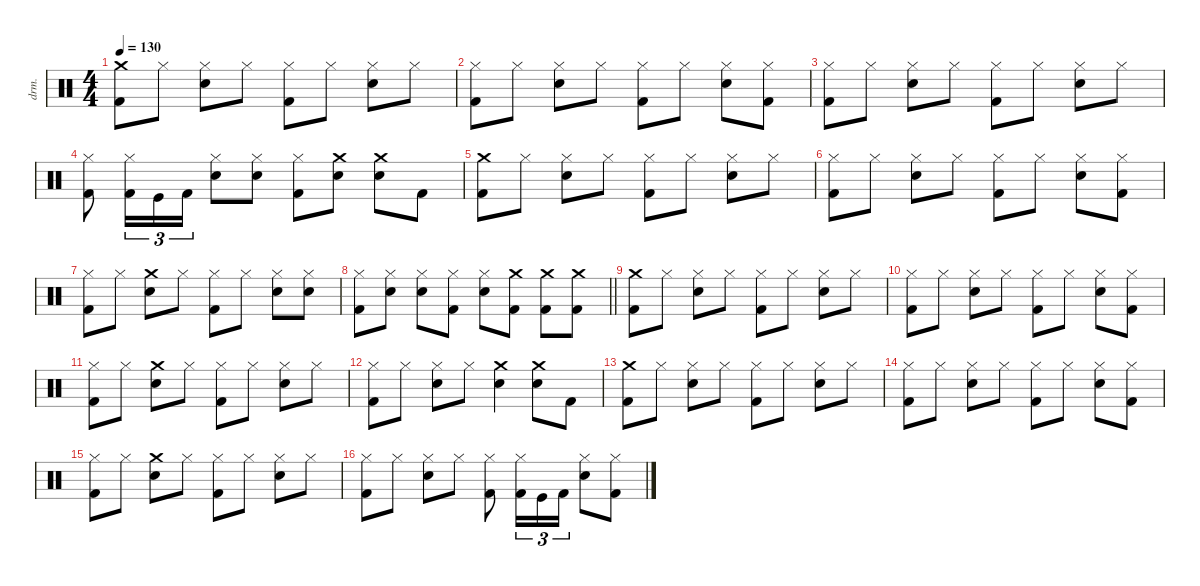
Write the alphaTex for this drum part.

\defaultSystemsLayout 4
\hideDynamics
\bracketExtendMode nobrackets
\otherSystemsTrackNameOrientation horizontal
\track ("Lars Ulrich (Drums)" "drm.") {instrument percussion}
\staff {score}
\articulation defaults
\ts (4 4)
\tempo 130
\clef neutral
\ks c
("Crash medium (hit)" "Kick (hit) 2").8{dy f beam Down} "Hi-Hat (closed)".8{beam Down} ("Snare (hit) 2" "Hi-Hat (closed)").8{beam Down} "Hi-Hat (closed)".8{beam Down} ("Hi-Hat (closed)" "Kick (hit) 2").8{beam Down} "Hi-Hat (closed)".8{beam Down} ("Snare (hit) 2" "Hi-Hat (closed)").8{beam Down} "Hi-Hat (closed)".8{beam Down} |
("Hi-Hat (closed)" "Kick (hit) 2").8{beam Down} "Hi-Hat (closed)".8{beam Down} ("Snare (hit) 2" "Hi-Hat (closed)").8{beam Down} "Hi-Hat (closed)".8{beam Down} ("Hi-Hat (closed)" "Kick (hit) 2").8{beam Down} "Hi-Hat (closed)".8{beam Down} ("Snare (hit) 2" "Hi-Hat (closed)").8{beam Down} ("Hi-Hat (closed)" "Kick (hit) 2").8{beam Down} |
("Hi-Hat (closed)" "Kick (hit) 2").8{beam Down} "Hi-Hat (closed)".8{beam Down} ("Snare (hit) 2" "Hi-Hat (closed)").8{beam Down} "Hi-Hat (closed)".8{beam Down} ("Hi-Hat (closed)" "Kick (hit) 2").8{beam Down} "Hi-Hat (closed)".8{beam Down} ("Snare (hit) 2" "Hi-Hat (closed)").8{beam Down} "Hi-Hat (closed)".8{beam Down} |
("Kick (hit) 2" "Hi-Hat (closed)").8{beam Down} ("Kick (hit) 2" "Hi-Hat (closed)").16{tu (3 2) beam Down} "Kick (hit)".16{tu (3 2) beam Down} "Kick (hit) 2".16{tu (3 2) beam Down} ("Snare (hit) 2" "Hi-Hat (closed)").8{beam Down} ("Snare (hit) 2" "Hi-Hat (closed)").8{beam Down} ("Kick (hit) 2" "Hi-Hat (closed)").8{beam Down} ("Crash medium (hit)" "Snare (hit) 2").8{beam Down} ("Snare (hit) 2" "Crash medium (hit)").8{beam Down} "Kick (hit) 2".8{beam Down} |
("Crash medium (hit)" "Kick (hit) 2").8{beam Down} "Hi-Hat (closed)".8{beam Down} ("Snare (hit) 2" "Hi-Hat (closed)").8{beam Down} "Hi-Hat (closed)".8{beam Down} ("Hi-Hat (closed)" "Kick (hit) 2").8{beam Down} "Hi-Hat (closed)".8{beam Down} ("Snare (hit) 2" "Hi-Hat (closed)").8{beam Down} "Hi-Hat (closed)".8{beam Down} |
("Hi-Hat (closed)" "Kick (hit) 2").8{beam Down} "Hi-Hat (closed)".8{beam Down} ("Snare (hit) 2" "Hi-Hat (closed)").8{beam Down} "Hi-Hat (closed)".8{beam Down} ("Hi-Hat (closed)" "Kick (hit) 2").8{beam Down} "Hi-Hat (closed)".8{beam Down} ("Snare (hit) 2" "Hi-Hat (closed)").8{beam Down} ("Hi-Hat (closed)" "Kick (hit) 2").8{beam Down} |
("Hi-Hat (closed)" "Kick (hit) 2").8{beam Down} "Hi-Hat (closed)".8{beam Down} ("Crash medium (hit)" "Snare (hit) 2").8{beam Down} "Hi-Hat (closed)".8{beam Down} ("Hi-Hat (closed)" "Kick (hit) 2").8{beam Down} "Hi-Hat (closed)".8{beam Down} ("Snare (hit) 2" "Hi-Hat (closed)").8{beam Down} ("Snare (hit) 2" "Hi-Hat (closed)").8{beam Down} |
\barLineRight lightlight
("Kick (hit) 2" "Hi-Hat (closed)").8{beam Down} ("Snare (hit) 2" "Hi-Hat (closed)").8{beam Down} ("Snare (hit) 2" "Hi-Hat (closed)").8{beam Down} ("Hi-Hat (closed)" "Kick (hit) 2").8{beam Down} ("Snare (hit) 2" "Hi-Hat (closed)").8{beam Down} ("Crash medium (hit)" "Kick (hit) 2").8{beam Down} ("Crash medium (hit)" "Kick (hit) 2").8{beam Down} ("Crash medium (hit)" "Kick (hit) 2").8{beam Down} |
("Crash medium (hit)" "Kick (hit) 2").8{beam Down} "Hi-Hat (closed)".8{beam Down} ("Snare (hit) 2" "Hi-Hat (closed)").8{beam Down} "Hi-Hat (closed)".8{beam Down} ("Hi-Hat (closed)" "Kick (hit) 2").8{beam Down} "Hi-Hat (closed)".8{beam Down} ("Snare (hit) 2" "Hi-Hat (closed)").8{beam Down} "Hi-Hat (closed)".8{beam Down} |
("Hi-Hat (closed)" "Kick (hit) 2").8{beam Down} "Hi-Hat (closed)".8{beam Down} ("Snare (hit) 2" "Hi-Hat (closed)").8{beam Down} "Hi-Hat (closed)".8{beam Down} ("Hi-Hat (closed)" "Kick (hit) 2").8{beam Down} "Hi-Hat (closed)".8{beam Down} ("Snare (hit) 2" "Hi-Hat (closed)").8{beam Down} ("Hi-Hat (closed)" "Kick (hit) 2").8{beam Down} |
("Hi-Hat (closed)" "Kick (hit) 2").8{beam Down} "Hi-Hat (closed)".8{beam Down} ("Crash medium (hit)" "Snare (hit) 2").8{beam Down} "Hi-Hat (closed)".8{beam Down} ("Hi-Hat (closed)" "Kick (hit) 2").8{beam Down} "Hi-Hat (closed)".8{beam Down} ("Snare (hit) 2" "Hi-Hat (closed)").8{beam Down} "Hi-Hat (closed)".8{beam Down} |
("Hi-Hat (closed)" "Kick (hit) 2").8{beam Down} "Hi-Hat (closed)".8{beam Down} ("Hi-Hat (closed)" "Snare (hit) 2").8{beam Down} "Hi-Hat (closed)".8{beam Down} ("Crash medium (hit)" "Snare (hit) 2").4{beam Down} ("Crash medium (hit)" "Snare (hit) 2").8{beam Down} "Kick (hit) 2".8{beam Down} |
("Crash medium (hit)" "Kick (hit) 2").8{beam Down} "Hi-Hat (closed)".8{beam Down} ("Snare (hit) 2" "Hi-Hat (closed)").8{beam Down} "Hi-Hat (closed)".8{beam Down} ("Hi-Hat (closed)" "Kick (hit) 2").8{beam Down} "Hi-Hat (closed)".8{beam Down} ("Snare (hit) 2" "Hi-Hat (closed)").8{beam Down} "Hi-Hat (closed)".8{beam Down} |
("Hi-Hat (closed)" "Kick (hit) 2").8{beam Down} "Hi-Hat (closed)".8{beam Down} ("Snare (hit) 2" "Hi-Hat (closed)").8{beam Down} "Hi-Hat (closed)".8{beam Down} ("Hi-Hat (closed)" "Kick (hit) 2").8{beam Down} "Hi-Hat (closed)".8{beam Down} ("Snare (hit) 2" "Hi-Hat (closed)").8{beam Down} ("Hi-Hat (closed)" "Kick (hit) 2").8{beam Down} |
("Hi-Hat (closed)" "Kick (hit) 2").8{beam Down} "Hi-Hat (closed)".8{beam Down} ("Crash medium (hit)" "Snare (hit) 2").8{beam Down} "Hi-Hat (closed)".8{beam Down} ("Hi-Hat (closed)" "Kick (hit) 2").8{beam Down} "Hi-Hat (closed)".8{beam Down} ("Snare (hit) 2" "Hi-Hat (closed)").8{beam Down} "Hi-Hat (closed)".8{beam Down} |
("Kick (hit) 2" "Hi-Hat (closed)").8{beam Down} "Hi-Hat (closed)".8{beam Down} ("Hi-Hat (closed)" "Snare (hit) 2").8{beam Down} "Hi-Hat (closed)".8{beam Down} ("Kick (hit) 2" "Hi-Hat (closed)").8{beam Down} ("Kick (hit) 2" "Hi-Hat (closed)").16{tu (3 2) beam Down} "Kick (hit)".16{tu (3 2) beam Down} "Kick (hit) 2".16{tu (3 2) beam Down} ("Snare (hit) 2" "Hi-Hat (closed)").8{beam Down} ("Kick (hit) 2" "Hi-Hat (closed)").8{beam Down}
